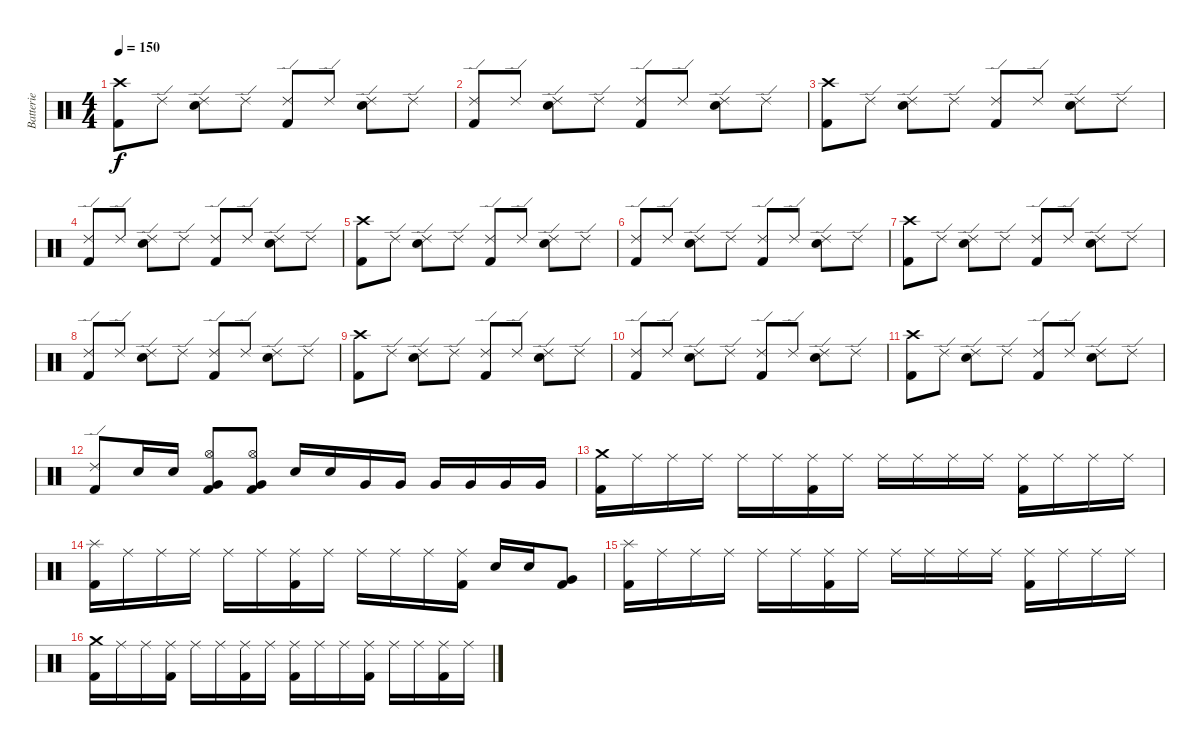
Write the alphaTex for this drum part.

\track ("Batterie" "Batterie") {instrument percussion}
\staff {score}
\articulation defaults
\ts (4 4)
\tempo 150
\clef neutral
\ks c
("Crash high (hit)" "Kick (hit) 2").8{dy f} "Ride (edge) 2".8 ("Ride (edge) 2" "Snare (hit) 2").8 "Ride (edge) 2".8 ("Ride (edge) 2" "Kick (hit) 2").8 "Ride (edge) 2".8 ("Ride (edge) 2" "Snare (hit) 2").8 "Ride (edge) 2".8 |
("Ride (edge) 2" "Kick (hit) 2").8 "Ride (edge) 2".8 ("Ride (edge) 2" "Snare (hit) 2").8 "Ride (edge) 2".8 ("Ride (edge) 2" "Kick (hit) 2").8 "Ride (edge) 2".8 ("Ride (edge) 2" "Snare (hit) 2").8 "Ride (edge) 2".8 |
("Crash high (hit)" "Kick (hit) 2").8 "Ride (edge) 2".8 ("Ride (edge) 2" "Snare (hit) 2").8 "Ride (edge) 2".8 ("Ride (edge) 2" "Kick (hit) 2").8 "Ride (edge) 2".8 ("Ride (edge) 2" "Snare (hit) 2").8 "Ride (edge) 2".8 |
("Ride (edge) 2" "Kick (hit) 2").8 "Ride (edge) 2".8 ("Ride (edge) 2" "Snare (hit) 2").8 "Ride (edge) 2".8 ("Ride (edge) 2" "Kick (hit) 2").8 "Ride (edge) 2".8 ("Ride (edge) 2" "Snare (hit) 2").8 "Ride (edge) 2".8 |
("Crash high (hit)" "Kick (hit) 2").8 "Ride (edge) 2".8 ("Ride (edge) 2" "Snare (hit) 2").8 "Ride (edge) 2".8 ("Ride (edge) 2" "Kick (hit) 2").8 "Ride (edge) 2".8 ("Ride (edge) 2" "Snare (hit) 2").8 "Ride (edge) 2".8 |
("Ride (edge) 2" "Kick (hit) 2").8 "Ride (edge) 2".8 ("Ride (edge) 2" "Snare (hit) 2").8 "Ride (edge) 2".8 ("Ride (edge) 2" "Kick (hit) 2").8 "Ride (edge) 2".8 ("Ride (edge) 2" "Snare (hit) 2").8 "Ride (edge) 2".8 |
("Crash high (hit)" "Kick (hit) 2").8 "Ride (edge) 2".8 ("Ride (edge) 2" "Snare (hit) 2").8 "Ride (edge) 2".8 ("Ride (edge) 2" "Kick (hit) 2").8 "Ride (edge) 2".8 ("Ride (edge) 2" "Snare (hit) 2").8 "Ride (edge) 2".8 |
("Ride (edge) 2" "Kick (hit) 2").8 "Ride (edge) 2".8 ("Ride (edge) 2" "Snare (hit) 2").8 "Ride (edge) 2".8 ("Ride (edge) 2" "Kick (hit) 2").8 "Ride (edge) 2".8 ("Ride (edge) 2" "Snare (hit) 2").8 "Ride (edge) 2".8 |
("Crash high (hit)" "Kick (hit) 2").8 "Ride (edge) 2".8 ("Ride (edge) 2" "Snare (hit) 2").8 "Ride (edge) 2".8 ("Ride (edge) 2" "Kick (hit) 2").8 "Ride (edge) 2".8 ("Ride (edge) 2" "Snare (hit) 2").8 "Ride (edge) 2".8 |
("Ride (edge) 2" "Kick (hit) 2").8 "Ride (edge) 2".8 ("Ride (edge) 2" "Snare (hit) 2").8 "Ride (edge) 2".8 ("Ride (edge) 2" "Kick (hit) 2").8 "Ride (edge) 2".8 ("Ride (edge) 2" "Snare (hit) 2").8 "Ride (edge) 2".8 |
("Crash high (hit)" "Kick (hit) 2").8 "Ride (edge) 2".8 ("Ride (edge) 2" "Snare (hit) 2").8 "Ride (edge) 2".8 ("Ride (edge) 2" "Kick (hit) 2").8 "Ride (edge) 2".8 ("Ride (edge) 2" "Snare (hit) 2").8 "Ride (edge) 2".8 |
("Ride (edge) 2" "Kick (hit) 2").8 "Snare (hit) 2".16 "Snare (hit) 2".16 ("Hi-Hat (open)" "Very Low Tom (hit)" "Kick (hit) 2").8 ("Hi-Hat (open)" "Very Low Tom (hit)" "Kick (hit) 2").8 "Snare (hit) 2".16 "Snare (hit) 2".16 "Very Low Tom (hit)".16 "Very Low Tom (hit)".16 "Very Low Tom (hit)".16 "Very Low Tom (hit)".16 "Very Low Tom (hit)".16 "Very Low Tom (hit)".16 |
("Crash medium (hit)" "Kick (hit) 2").16 "Ride (middle)".16 "Ride (middle)".16 "Ride (middle)".16 "Ride (middle)".16 "Ride (middle)".16 ("Ride (middle)" "Kick (hit) 2").16 "Ride (middle)".16 "Ride (middle)".16 "Ride (middle)".16 "Ride (middle)".16 "Ride (middle)".16 ("Ride (middle)" "Kick (hit) 2").16 "Ride (middle)".16 "Ride (middle)".16 "Ride (middle)".16 |
("Splash (hit)" "Kick (hit) 2").16 "Ride (middle)".16 "Ride (middle)".16 "Ride (middle)".16 "Ride (middle)".16 "Ride (middle)".16 ("Ride (middle)" "Kick (hit) 2").16 "Ride (middle)".16 "Ride (middle)".16 "Ride (middle)".16 "Ride (middle)".16 ("Ride (middle)" "Kick (hit) 2").16 "Snare (hit) 2".16 "Snare (hit) 2".16 ("Very Low Tom (hit)" "Kick (hit) 2").8 |
("Splash (hit)" "Kick (hit) 2").16 "Ride (middle)".16 "Ride (middle)".16 "Ride (middle)".16 "Ride (middle)".16 "Ride (middle)".16 ("Ride (middle)" "Kick (hit) 2").16 "Ride (middle)".16 "Ride (middle)".16 "Ride (middle)".16 "Ride (middle)".16 "Ride (middle)".16 ("Ride (middle)" "Kick (hit) 2").16 "Ride (middle)".16 "Ride (middle)".16 "Ride (middle)".16 |
("Crash medium (hit)" "Kick (hit) 2").16 "Ride (middle)".16 "Ride (middle)".16 ("Ride (middle)" "Kick (hit) 2").16 "Ride (middle)".16 "Ride (middle)".16 ("Ride (middle)" "Kick (hit) 2").16 "Ride (middle)".16 ("Ride (middle)" "Kick (hit) 2").16 "Ride (middle)".16 "Ride (middle)".16 ("Ride (middle)" "Kick (hit) 2").16 "Ride (middle)".16 "Ride (middle)".16 ("Ride (middle)" "Kick (hit) 2").16 "Ride (middle)".16
